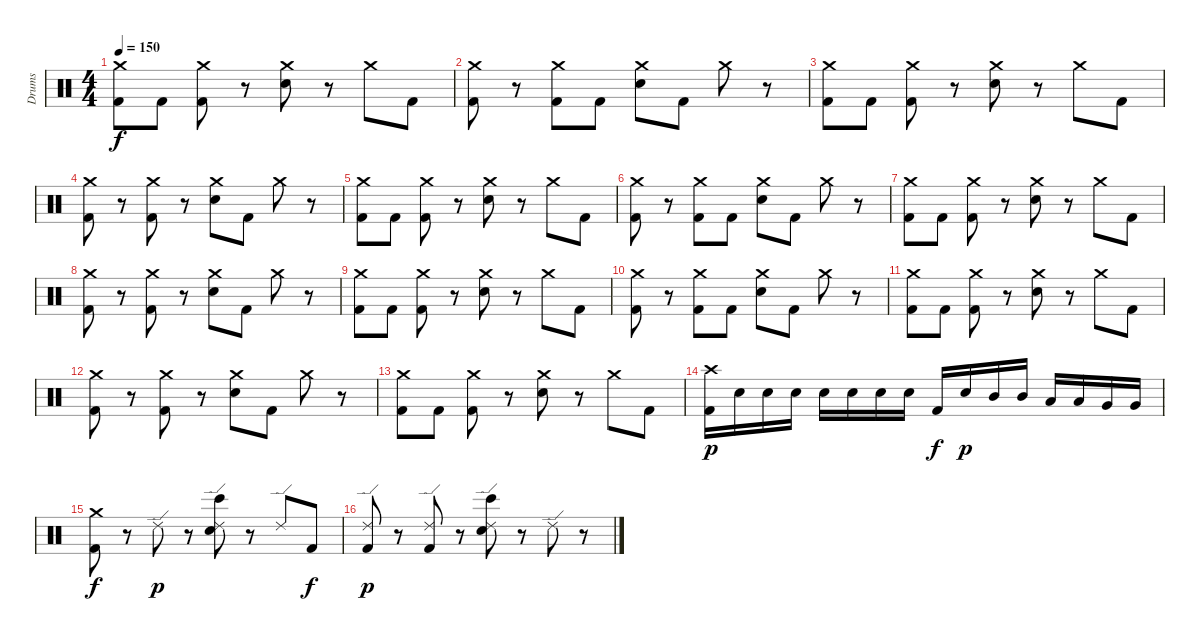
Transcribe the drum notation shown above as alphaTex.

\track ("Drums" "Drums") {instrument percussion}
\staff {score}
\articulation defaults
\ts (4 4)
\tempo 150
\clef neutral
\ks c
("Crash medium (hit)" "Kick (hit) 2").8{dy f} "Kick (hit) 2".8 ("Crash medium (hit)" "Kick (hit) 2").8 r.8 ("Crash medium (hit)" "Electric Snare (hit)").8 r.8 "Crash medium (hit)".8 "Kick (hit) 2".8 |
("Crash medium (hit)" "Kick (hit) 2").8 r.8 ("Crash medium (hit)" "Kick (hit) 2").8 "Kick (hit) 2".8 ("Crash medium (hit)" "Electric Snare (hit)").8 "Kick (hit) 2".8 "Crash medium (hit)".8 r.8 |
("Crash medium (hit)" "Kick (hit) 2").8 "Kick (hit) 2".8 ("Crash medium (hit)" "Kick (hit) 2").8 r.8 ("Crash medium (hit)" "Electric Snare (hit)").8 r.8 "Crash medium (hit)".8 "Kick (hit) 2".8 |
("Crash medium (hit)" "Kick (hit) 2").8 r.8 ("Crash medium (hit)" "Kick (hit) 2").8 r.8 ("Crash medium (hit)" "Electric Snare (hit)").8 "Kick (hit) 2".8 "Crash medium (hit)".8 r.8 |
("Crash medium (hit)" "Kick (hit) 2").8 "Kick (hit) 2".8 ("Crash medium (hit)" "Kick (hit) 2").8 r.8 ("Crash medium (hit)" "Electric Snare (hit)").8 r.8 "Crash medium (hit)".8 "Kick (hit) 2".8 |
("Crash medium (hit)" "Kick (hit) 2").8 r.8 ("Crash medium (hit)" "Kick (hit) 2").8 "Kick (hit) 2".8 ("Crash medium (hit)" "Electric Snare (hit)").8 "Kick (hit) 2".8 "Crash medium (hit)".8 r.8 |
("Crash medium (hit)" "Kick (hit) 2").8 "Kick (hit) 2".8 ("Crash medium (hit)" "Kick (hit) 2").8 r.8 ("Crash medium (hit)" "Electric Snare (hit)").8 r.8 "Crash medium (hit)".8 "Kick (hit) 2".8 |
("Crash medium (hit)" "Kick (hit) 2").8 r.8 ("Crash medium (hit)" "Kick (hit) 2").8 r.8 ("Crash medium (hit)" "Electric Snare (hit)").8 "Kick (hit) 2".8 "Crash medium (hit)".8 r.8 |
("Crash medium (hit)" "Kick (hit) 2").8 "Kick (hit) 2".8 ("Crash medium (hit)" "Kick (hit) 2").8 r.8 ("Crash medium (hit)" "Electric Snare (hit)").8 r.8 "Crash medium (hit)".8 "Kick (hit) 2".8 |
("Crash medium (hit)" "Kick (hit) 2").8 r.8 ("Crash medium (hit)" "Kick (hit) 2").8 "Kick (hit) 2".8 ("Crash medium (hit)" "Electric Snare (hit)").8 "Kick (hit) 2".8 "Crash medium (hit)".8 r.8 |
("Crash medium (hit)" "Kick (hit) 2").8 "Kick (hit) 2".8 ("Crash medium (hit)" "Kick (hit) 2").8 r.8 ("Crash medium (hit)" "Electric Snare (hit)").8 r.8 "Crash medium (hit)".8 "Kick (hit) 2".8 |
("Crash medium (hit)" "Kick (hit) 2").8 r.8 ("Crash medium (hit)" "Kick (hit) 2").8 r.8 ("Crash medium (hit)" "Electric Snare (hit)").8 "Kick (hit) 2".8 "Crash medium (hit)".8 r.8 |
("Crash medium (hit)" "Kick (hit) 2").8 "Kick (hit) 2".8 ("Crash medium (hit)" "Kick (hit) 2").8 r.8 ("Crash medium (hit)" "Electric Snare (hit)").8 r.8 "Crash medium (hit)".8 "Kick (hit) 2".8 |
("Crash high (hit)" "Kick (hit) 2").16{dy p} "Electric Snare (hit)".16 "Electric Snare (hit)".16 "Electric Snare (hit)".16 "Electric Snare (hit)".16 "Electric Snare (hit)".16 "Electric Snare (hit)".16 "Electric Snare (hit)".16 "Kick (hit) 2".16{dy f} "Electric Snare (hit)".16{dy p} "Mid Tom (hit)".16 "Mid Tom (hit)".16 "Low Tom (hit)".16 "Low Tom (hit)".16 "Very Low Tom (hit)".16 "Very Low Tom (hit)".16 |
("Crash medium (hit)" "Kick (hit) 2").8{dy f} r.8 "Ride (edge) 2".8{dy p} r.8 ("Ride (edge) 2" "Bongo High (hit)" "Electric Snare (hit)").8 r.8 "Ride (edge) 2".8 "Kick (hit) 2".8{dy f} |
("Ride (edge) 2" "Kick (hit) 2").8{dy p} r.8 ("Ride (edge) 2" "Kick (hit) 2").8 r.8 ("Ride (edge) 2" "Bongo High (hit)" "Electric Snare (hit)").8 r.8 "Ride (edge) 2".8 r.8
